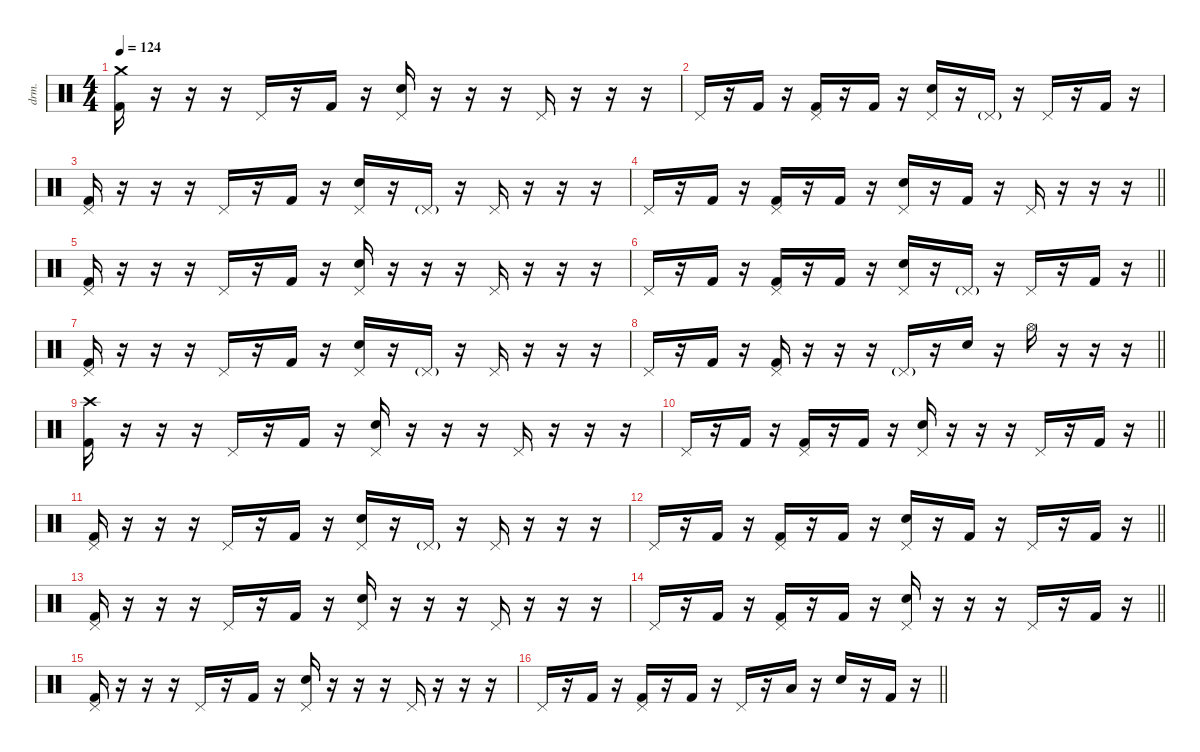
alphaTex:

\defaultSystemsLayout 4
\hideDynamics
\bracketExtendMode nobrackets
\otherSystemsTrackNameOrientation horizontal
\track ("Percussion" "drm.") {instrument percussion}
\staff {score}
\articulation defaults
\ts (4 4)
\section ("" "")
\tempo 124
\clef neutral
\ks c
("Kick (hit) 2" "Crash medium (hit)").16{dy f beam Down} r.16{beam Down} r.16{beam Down} r.16{beam Down} "Pedal Hi-Hat (hit)".16{beam Up} r.16{beam Up} "Kick (hit) 2".16{beam Up} r.16{beam Up} ("Snare (hit) 2" "Pedal Hi-Hat (hit)").16{beam Up} r.16{beam Up} r.16{beam Up} r.16{beam Up} "Pedal Hi-Hat (hit)".16{beam Up} r.16{beam Up} r.16{beam Up} r.16{beam Up} |
"Pedal Hi-Hat (hit)".16{beam Up} r.16{beam Up} "Kick (hit) 2".16{beam Up} r.16{beam Up} ("Kick (hit) 2" "Pedal Hi-Hat (hit)").16{beam Up} r.16{beam Up} "Kick (hit) 2".16{beam Up} r.16{beam Up} ("Snare (hit) 2" "Pedal Hi-Hat (hit)").16{beam Up} r.16{beam Up} "Pedal Hi-Hat (hit)"{g}.16{dy mf beam Up} r.16{beam Up} "Pedal Hi-Hat (hit)".16{dy f beam Up} r.16{beam Up} "Kick (hit) 2".16{beam Up} r.16{beam Up} |
("Kick (hit) 2" "Pedal Hi-Hat (hit)").16{beam Up} r.16{beam Up} r.16{beam Up} r.16{beam Up} "Pedal Hi-Hat (hit)".16{beam Up} r.16{beam Up} "Kick (hit) 2".16{beam Up} r.16{beam Up} ("Snare (hit) 2" "Pedal Hi-Hat (hit)").16{beam Up} r.16{beam Up} "Pedal Hi-Hat (hit)"{g}.16{dy mf beam Up} r.16{beam Up} "Pedal Hi-Hat (hit)".16{dy f beam Up} r.16{beam Up} r.16{beam Up} r.16{beam Up} |
\barLineRight lightlight "Pedal Hi-Hat (hit)".16{beam Up}
r.16{beam Up} "Kick (hit) 2".16{beam Up} r.16{beam Up} ("Kick (hit) 2" "Pedal Hi-Hat (hit)").16{beam Up} r.16{beam Up} "Kick (hit) 2".16{beam Up} r.16{beam Up} ("Snare (hit) 2" "Pedal Hi-Hat (hit)").16{beam Up} r.16{beam Up} "Kick (hit) 2".16{dy mf beam Up} r.16{beam Up} "Pedal Hi-Hat (hit)".16{dy f beam Up} r.16{beam Up} r.16{beam Up} r.16{beam Up} |
("Kick (hit) 2" "Pedal Hi-Hat (hit)").16{beam Up} r.16{beam Up} r.16{beam Up} r.16{beam Up} "Pedal Hi-Hat (hit)".16{beam Up} r.16{beam Up} "Kick (hit) 2".16{beam Up} r.16{beam Up} ("Snare (hit) 2" "Pedal Hi-Hat (hit)").16{beam Up} r.16{beam Up} r.16{beam Up} r.16{beam Up} "Pedal Hi-Hat (hit)".16{beam Up} r.16{beam Up} r.16{beam Up} r.16{beam Up} |
\barLineRight lightlight "Pedal Hi-Hat (hit)".16{beam Up}
r.16{beam Up} "Kick (hit) 2".16{beam Up} r.16{beam Up} ("Kick (hit) 2" "Pedal Hi-Hat (hit)").16{beam Up} r.16{beam Up} "Kick (hit) 2".16{beam Up} r.16{beam Up} ("Snare (hit) 2" "Pedal Hi-Hat (hit)").16{beam Up} r.16{beam Up} "Pedal Hi-Hat (hit)"{g}.16{dy mf beam Up} r.16{beam Up} "Pedal Hi-Hat (hit)".16{dy f beam Up} r.16{beam Up} "Kick (hit) 2".16{beam Up} r.16{beam Up} |
("Kick (hit) 2" "Pedal Hi-Hat (hit)").16{beam Up} r.16{beam Up} r.16{beam Up} r.16{beam Up} "Pedal Hi-Hat (hit)".16{beam Up} r.16{beam Up} "Kick (hit) 2".16{beam Up} r.16{beam Up} ("Snare (hit) 2" "Pedal Hi-Hat (hit)").16{beam Up} r.16{beam Up} "Pedal Hi-Hat (hit)"{g}.16{dy mf beam Up} r.16{beam Up} "Pedal Hi-Hat (hit)".16{dy f beam Up} r.16{beam Up} r.16{beam Up} r.16{beam Up} |
\barLineRight lightlight "Pedal Hi-Hat (hit)".16{beam Up}
r.16{beam Up} "Kick (hit) 2".16{beam Up} r.16{beam Up} ("Kick (hit) 2" "Pedal Hi-Hat (hit)").16{beam Up} r.16{beam Up} r.16{beam Up} r.16{beam Up} "Pedal Hi-Hat (hit)"{g}.16{dy mf beam Up} r.16{beam Up} "Snare (hit) 2".16{dy f beam Up} r.16{beam Up} "Hi-Hat (open)".16{beam Down} r.16{beam Down} r.16{beam Down} r.16{beam Down} |
("Kick (hit) 2" "Crash high (hit)").16{beam Down} r.16{beam Down} r.16{beam Down} r.16{beam Down} "Pedal Hi-Hat (hit)".16{beam Up} r.16{beam Up} "Kick (hit) 2".16{beam Up} r.16{beam Up} ("Snare (hit) 2" "Pedal Hi-Hat (hit)").16{beam Up} r.16{beam Up} r.16{beam Up} r.16{beam Up} "Pedal Hi-Hat (hit)".16{beam Up} r.16{beam Up} r.16{beam Up} r.16{beam Up} |
\barLineRight lightlight "Pedal Hi-Hat (hit)".16{beam Up}
r.16{beam Up} "Kick (hit) 2".16{beam Up} r.16{beam Up} ("Kick (hit) 2" "Pedal Hi-Hat (hit)").16{beam Up} r.16{beam Up} "Kick (hit) 2".16{beam Up} r.16{beam Up} ("Snare (hit) 2" "Pedal Hi-Hat (hit)").16{beam Up} r.16{beam Up} r.16{beam Up} r.16{beam Up} "Pedal Hi-Hat (hit)".16{beam Up} r.16{beam Up} "Kick (hit) 2".16{beam Up} r.16{beam Up} |
("Kick (hit) 2" "Pedal Hi-Hat (hit)").16{beam Up} r.16{beam Up} r.16{beam Up} r.16{beam Up} "Pedal Hi-Hat (hit)".16{beam Up} r.16{beam Up} "Kick (hit) 2".16{beam Up} r.16{beam Up} ("Snare (hit) 2" "Pedal Hi-Hat (hit)").16{beam Up} r.16{beam Up} "Pedal Hi-Hat (hit)"{g}.16{dy mf beam Up} r.16{beam Up} "Pedal Hi-Hat (hit)".16{dy f beam Up} r.16{beam Up} r.16{beam Up} r.16{beam Up} |
\barLineRight lightlight "Pedal Hi-Hat (hit)".16{beam Up}
r.16{beam Up} "Kick (hit) 2".16{beam Up} r.16{beam Up} ("Kick (hit) 2" "Pedal Hi-Hat (hit)").16{beam Up} r.16{beam Up} "Kick (hit) 2".16{beam Up} r.16{beam Up} ("Snare (hit) 2" "Pedal Hi-Hat (hit)").16{beam Up} r.16{beam Up} "Kick (hit) 2".16{beam Up} r.16{beam Up} "Pedal Hi-Hat (hit)".16{beam Up} r.16{beam Up} "Kick (hit) 2".16{beam Up} r.16{beam Up} |
("Kick (hit) 2" "Pedal Hi-Hat (hit)").16{beam Up} r.16{beam Up} r.16{beam Up} r.16{beam Up} "Pedal Hi-Hat (hit)".16{beam Up} r.16{beam Up} "Kick (hit) 2".16{beam Up} r.16{beam Up} ("Snare (hit) 2" "Pedal Hi-Hat (hit)").16{beam Up} r.16{beam Up} r.16{beam Up} r.16{beam Up} "Pedal Hi-Hat (hit)".16{beam Up} r.16{beam Up} r.16{beam Up} r.16{beam Up} |
\barLineRight lightlight "Pedal Hi-Hat (hit)".16{beam Up}
r.16{beam Up} "Kick (hit) 2".16{beam Up} r.16{beam Up} ("Kick (hit) 2" "Pedal Hi-Hat (hit)").16{beam Up} r.16{beam Up} "Kick (hit) 2".16{beam Up} r.16{beam Up} ("Snare (hit) 2" "Pedal Hi-Hat (hit)").16{beam Up} r.16{beam Up} r.16{beam Up} r.16{beam Up} "Pedal Hi-Hat (hit)".16{beam Up} r.16{beam Up} "Kick (hit) 2".16{beam Up} r.16{beam Up} |
("Kick (hit) 2" "Pedal Hi-Hat (hit)").16{beam Up} r.16{beam Up} r.16{beam Up} r.16{beam Up} "Pedal Hi-Hat (hit)".16{beam Up} r.16{beam Up} "Kick (hit) 2".16{beam Up} r.16{beam Up} ("Snare (hit) 2" "Pedal Hi-Hat (hit)").16{beam Up} r.16{beam Up} r.16{beam Up} r.16{beam Up} "Pedal Hi-Hat (hit)".16{beam Up} r.16{beam Up} r.16{beam Up} r.16{beam Up} |
\barLineRight lightlight "Pedal Hi-Hat (hit)".16{beam Up}
r.16{beam Up} "Kick (hit) 2".16{beam Up} r.16{beam Up} ("Kick (hit) 2" "Pedal Hi-Hat (hit)").16{beam Up} r.16{beam Up} "Kick (hit) 2".16{beam Up} r.16{beam Up} "Pedal Hi-Hat (hit)".16{beam Up} r.16{beam Up} "Low Tom (hit)".16{beam Up} r.16{beam Up} "Snare (hit) 2".16{beam Up} r.16{beam Up} "Kick (hit) 2".16{beam Up} r.16{beam Up}
